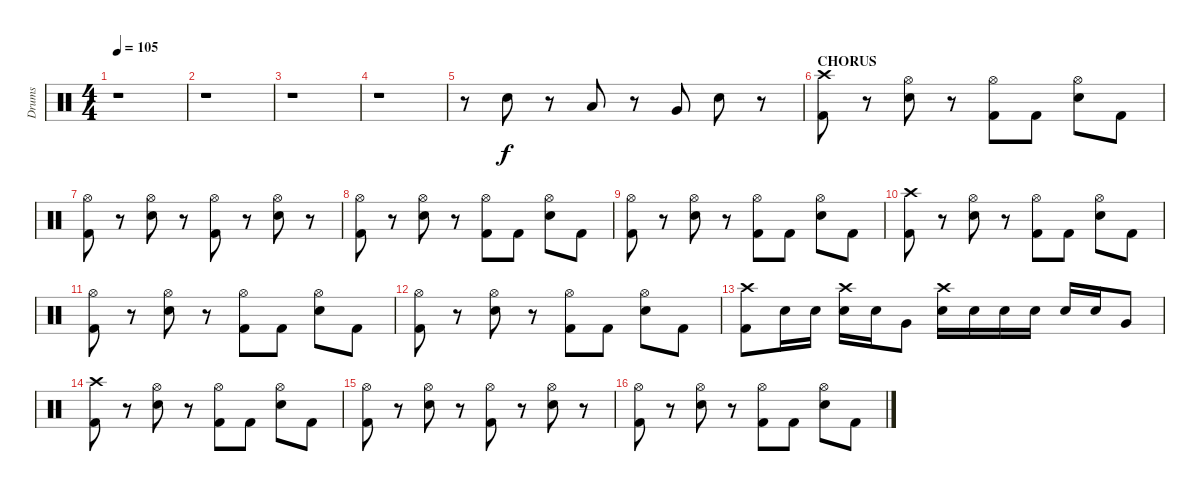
\track ("Drums" "Drums") {instrument percussion}
\staff {score}
\articulation defaults
\ts (4 4)
\tempo 105
\clef neutral
\ks c
r.1{dy fff} |
r.1 |
r.1 |
r.1 |
r.8 "Electric Snare (hit)".8{dy f} r.8 "Low Tom (hit)".8 r.8 "Very Low Tom (hit)".8 "Electric Snare (hit)".8 r.8 |
\section ("" "CHORUS")
("Crash high (hit)" "Kick (hit) 2").8 r.8 ("Hi-Hat (open)" "Electric Snare (hit)").8 r.8 ("Hi-Hat (open)" "Kick (hit) 2").8 "Kick (hit) 2".8 ("Hi-Hat (open)" "Electric Snare (hit)").8 "Kick (hit) 2".8 |
("Hi-Hat (open)" "Kick (hit) 2").8 r.8 ("Hi-Hat (open)" "Electric Snare (hit)").8 r.8 ("Hi-Hat (open)" "Kick (hit) 2").8 r.8 ("Hi-Hat (open)" "Electric Snare (hit)").8 r.8 |
("Hi-Hat (open)" "Kick (hit) 2").8 r.8 ("Hi-Hat (open)" "Electric Snare (hit)").8 r.8 ("Hi-Hat (open)" "Kick (hit) 2").8 "Kick (hit) 2".8 ("Hi-Hat (open)" "Electric Snare (hit)").8 "Kick (hit) 2".8 |
("Hi-Hat (open)" "Kick (hit) 2").8 r.8 ("Hi-Hat (open)" "Electric Snare (hit)").8 r.8 ("Hi-Hat (open)" "Kick (hit) 2").8 "Kick (hit) 2".8 ("Hi-Hat (open)" "Electric Snare (hit)").8 "Kick (hit) 2".8 |
("Crash high (hit)" "Kick (hit) 2").8 r.8 ("Hi-Hat (open)" "Electric Snare (hit)").8 r.8 ("Hi-Hat (open)" "Kick (hit) 2").8 "Kick (hit) 2".8 ("Hi-Hat (open)" "Electric Snare (hit)").8 "Kick (hit) 2".8 |
("Hi-Hat (open)" "Kick (hit) 2").8 r.8 ("Hi-Hat (open)" "Electric Snare (hit)").8 r.8 ("Hi-Hat (open)" "Kick (hit) 2").8 "Kick (hit) 2".8 ("Hi-Hat (open)" "Electric Snare (hit)").8 "Kick (hit) 2".8 |
("Hi-Hat (open)" "Kick (hit) 2").8 r.8 ("Hi-Hat (open)" "Electric Snare (hit)").8 r.8 ("Hi-Hat (open)" "Kick (hit) 2").8 "Kick (hit) 2".8 ("Hi-Hat (open)" "Electric Snare (hit)").8 "Kick (hit) 2".8 |
("Crash high (hit)" "Kick (hit) 2").8 "Electric Snare (hit)".16 "Electric Snare (hit)".16 ("Crash high (hit)" "Electric Snare (hit)").16 "Electric Snare (hit)".16 "Very Low Tom (hit)".8 ("Crash high (hit)" "Electric Snare (hit)").16 "Electric Snare (hit)".16 "Electric Snare (hit)".16 "Electric Snare (hit)".16 "Electric Snare (hit)".16 "Electric Snare (hit)".16 "Very Low Tom (hit)".8 |
("Crash high (hit)" "Kick (hit) 2").8 r.8 ("Hi-Hat (open)" "Electric Snare (hit)").8 r.8 ("Hi-Hat (open)" "Kick (hit) 2").8 "Kick (hit) 2".8 ("Hi-Hat (open)" "Electric Snare (hit)").8 "Kick (hit) 2".8 |
("Hi-Hat (open)" "Kick (hit) 2").8 r.8 ("Hi-Hat (open)" "Electric Snare (hit)").8 r.8 ("Hi-Hat (open)" "Kick (hit) 2").8 r.8 ("Hi-Hat (open)" "Electric Snare (hit)").8 r.8 |
("Hi-Hat (open)" "Kick (hit) 2").8 r.8 ("Hi-Hat (open)" "Electric Snare (hit)").8 r.8 ("Hi-Hat (open)" "Kick (hit) 2").8 "Kick (hit) 2".8 ("Hi-Hat (open)" "Electric Snare (hit)").8 "Kick (hit) 2".8
